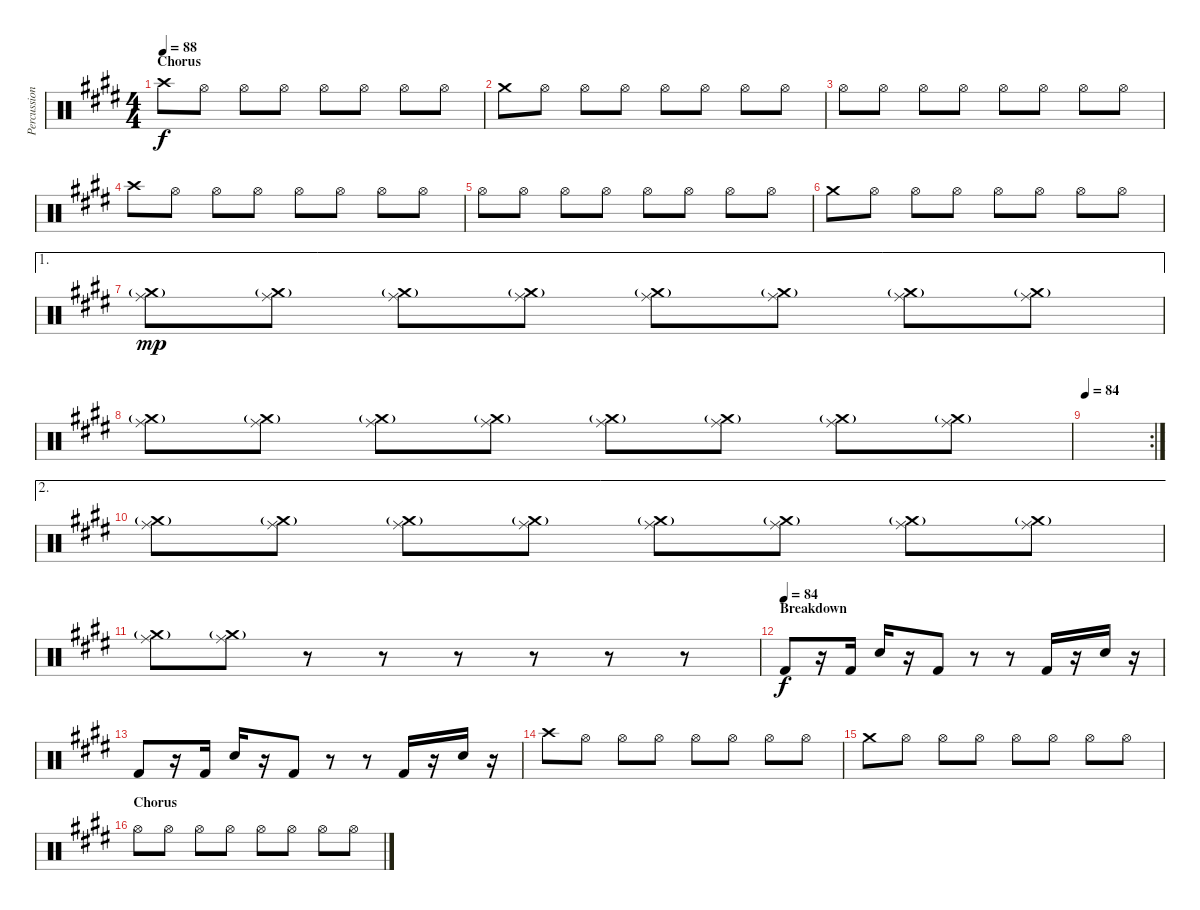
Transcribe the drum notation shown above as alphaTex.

\track ("Percussion" "Percussion") {instrument percussion}
\staff {score}
\articulation defaults
\ts (4 4)
\section ("" "Chorus")
\tempo 88
\clef neutral
\ks e "Crash high (hit)".8{dy f} "Hi-Hat (open)".8 "Hi-Hat (open)".8 "Hi-Hat (open)".8 "Hi-Hat (open)".8 "Hi-Hat (open)".8 "Hi-Hat (open)".8 "Hi-Hat (open)".8
|
"Crash medium (hit)".8 "Hi-Hat (open)".8 "Hi-Hat (open)".8 "Hi-Hat (open)".8 "Hi-Hat (open)".8 "Hi-Hat (open)".8 "Hi-Hat (open)".8 "Hi-Hat (open)".8 |
"Hi-Hat (open)".8 "Hi-Hat (open)".8 "Hi-Hat (open)".8 "Hi-Hat (open)".8 "Hi-Hat (open)".8 "Hi-Hat (open)".8 "Hi-Hat (open)".8 "Hi-Hat (open)".8 |
"Crash high (hit)".8 "Hi-Hat (open)".8 "Hi-Hat (open)".8 "Hi-Hat (open)".8 "Hi-Hat (open)".8 "Hi-Hat (open)".8 "Hi-Hat (open)".8 "Hi-Hat (open)".8 |
"Hi-Hat (open)".8 "Hi-Hat (open)".8 "Hi-Hat (open)".8 "Hi-Hat (open)".8 "Hi-Hat (open)".8 "Hi-Hat (open)".8 "Hi-Hat (open)".8 "Hi-Hat (open)".8 |
"Crash medium (hit)".8 "Hi-Hat (open)".8 "Hi-Hat (open)".8 "Hi-Hat (open)".8 "Hi-Hat (open)".8 "Hi-Hat (open)".8 "Hi-Hat (open)".8 "Hi-Hat (open)".8 |
\ae 1
("Ride (middle)" "Crash medium (hit)"{g}).8{dy mp} ("Ride (middle)" "Crash medium (hit)"{g}).8 ("Ride (middle)" "Crash medium (hit)"{g}).8 ("Ride (middle)" "Crash medium (hit)"{g}).8 ("Ride (middle)" "Crash medium (hit)"{g}).8 ("Ride (middle)" "Crash medium (hit)"{g}).8 ("Ride (middle)" "Crash medium (hit)"{g}).8 ("Ride (middle)" "Crash medium (hit)"{g}).8 |
("Ride (middle)" "Crash medium (hit)"{g}).8 ("Ride (middle)" "Crash medium (hit)"{g}).8 ("Ride (middle)" "Crash medium (hit)"{g}).8 ("Ride (middle)" "Crash medium (hit)"{g}).8 ("Ride (middle)" "Crash medium (hit)"{g}).8 ("Ride (middle)" "Crash medium (hit)"{g}).8 ("Ride (middle)" "Crash medium (hit)"{g}).8 ("Ride (middle)" "Crash medium (hit)"{g}).8 |
\rc 2
\tempo 84
|
\ae 2
("Ride (middle)" "Crash medium (hit)"{g}).8 ("Ride (middle)" "Crash medium (hit)"{g}).8 ("Ride (middle)" "Crash medium (hit)"{g}).8 ("Ride (middle)" "Crash medium (hit)"{g}).8 ("Ride (middle)" "Crash medium (hit)"{g}).8 ("Ride (middle)" "Crash medium (hit)"{g}).8 ("Ride (middle)" "Crash medium (hit)"{g}).8 ("Ride (middle)" "Crash medium (hit)"{g}).8 |
("Ride (middle)" "Crash medium (hit)"{g}).8 ("Ride (middle)" "Crash medium (hit)"{g}).8 r.8 r.8 r.8 r.8 r.8 r.8 |
\section ("" "Breakdown")
\tempo (84)
"Kick (hit) 2".8{dy f} r.16 "Kick (hit) 2".16 "Snare (hit) 2".16 r.16 "Kick (hit) 2".8 r.8 r.8 "Kick (hit) 2".16 r.16 "Snare (hit) 2".16 r.16 |
"Kick (hit) 2".8 r.16 "Kick (hit) 2".16 "Snare (hit) 2".16 r.16 "Kick (hit) 2".8 r.8 r.8 "Kick (hit) 2".16 r.16 "Snare (hit) 2".16 r.16 |
"Crash high (hit)".8 "Hi-Hat (open)".8 "Hi-Hat (open)".8 "Hi-Hat (open)".8 "Hi-Hat (open)".8 "Hi-Hat (open)".8 "Hi-Hat (open)".8 "Hi-Hat (open)".8 |
"Crash medium (hit)".8 "Hi-Hat (open)".8 "Hi-Hat (open)".8 "Hi-Hat (open)".8 "Hi-Hat (open)".8 "Hi-Hat (open)".8 "Hi-Hat (open)".8 "Hi-Hat (open)".8 |
\section ("" "Chorus")
"Hi-Hat (open)".8 "Hi-Hat (open)".8 "Hi-Hat (open)".8 "Hi-Hat (open)".8 "Hi-Hat (open)".8 "Hi-Hat (open)".8 "Hi-Hat (open)".8 "Hi-Hat (open)".8
